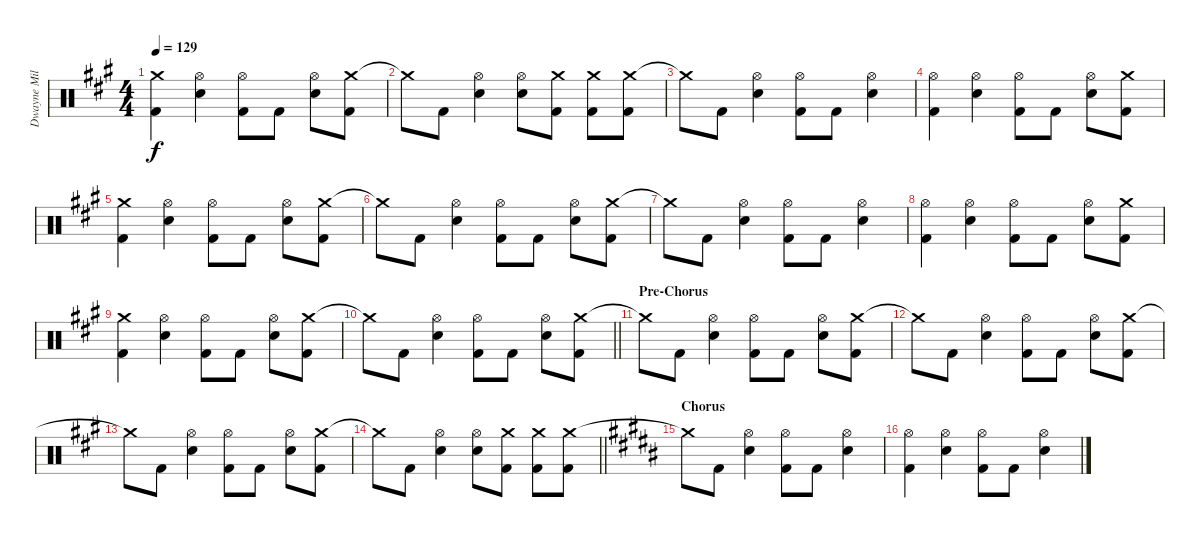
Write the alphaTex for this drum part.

\track ("Dwayne Miller" "Dwayne Mil") {instrument percussion}
\staff {score}
\articulation defaults
\ts (4 4)
\tempo 129
\clef neutral
\ks a
("Crash medium (hit)" "Kick (hit) 2").4{dy f} ("Hi-Hat (open)" "Snare (hit) 2").4 ("Hi-Hat (open)" "Kick (hit) 2").8 "Kick (hit) 2".8 ("Hi-Hat (open)" "Snare (hit) 2").8 ("Crash medium (hit)" "Kick (hit) 2").8 |
"Crash medium (hit)"{t}.8 "Kick (hit) 2".8 ("Hi-Hat (open)" "Snare (hit) 2").4 ("Hi-Hat (open)" "Snare (hit) 2").8 ("Crash medium (hit)" "Kick (hit) 2").8 ("Crash medium (hit)" "Kick (hit) 2").8 ("Crash medium (hit)" "Kick (hit) 2").8 |
"Crash medium (hit)"{t}.8 "Kick (hit) 2".8 ("Hi-Hat (open)" "Snare (hit) 2").4 ("Hi-Hat (open)" "Kick (hit) 2").8 "Kick (hit) 2".8 ("Hi-Hat (open)" "Snare (hit) 2").4 |
("Hi-Hat (open)" "Kick (hit) 2").4 ("Hi-Hat (open)" "Snare (hit) 2").4 ("Hi-Hat (open)" "Kick (hit) 2").8 "Kick (hit) 2".8 ("Hi-Hat (open)" "Snare (hit) 2").8 ("Crash medium (hit)" "Kick (hit) 2").8 |
("Crash medium (hit)" "Kick (hit) 2").4 ("Hi-Hat (open)" "Snare (hit) 2").4 ("Hi-Hat (open)" "Kick (hit) 2").8 "Kick (hit) 2".8 ("Hi-Hat (open)" "Snare (hit) 2").8 ("Crash medium (hit)" "Kick (hit) 2").8 |
"Crash medium (hit)"{t}.8 "Kick (hit) 2".8 ("Hi-Hat (open)" "Snare (hit) 2").4 ("Hi-Hat (open)" "Kick (hit) 2").8 "Kick (hit) 2".8 ("Hi-Hat (open)" "Snare (hit) 2").8 ("Crash medium (hit)" "Kick (hit) 2").8 |
"Crash medium (hit)"{t}.8 "Kick (hit) 2".8 ("Hi-Hat (open)" "Snare (hit) 2").4 ("Hi-Hat (open)" "Kick (hit) 2").8 "Kick (hit) 2".8 ("Hi-Hat (open)" "Snare (hit) 2").4 |
("Hi-Hat (open)" "Kick (hit) 2").4 ("Hi-Hat (open)" "Snare (hit) 2").4 ("Hi-Hat (open)" "Kick (hit) 2").8 "Kick (hit) 2".8 ("Hi-Hat (open)" "Snare (hit) 2").8 ("Crash medium (hit)" "Kick (hit) 2").8 |
("Crash medium (hit)" "Kick (hit) 2").4 ("Hi-Hat (open)" "Snare (hit) 2").4 ("Hi-Hat (open)" "Kick (hit) 2").8 "Kick (hit) 2".8 ("Hi-Hat (open)" "Snare (hit) 2").8 ("Crash medium (hit)" "Kick (hit) 2").8 |
\barLineRight lightlight "Crash medium (hit)"{t}.8 "Kick (hit) 2".8
("Hi-Hat (open)" "Snare (hit) 2").4 ("Hi-Hat (open)" "Kick (hit) 2").8 "Kick (hit) 2".8 ("Hi-Hat (open)" "Snare (hit) 2").8 ("Crash medium (hit)" "Kick (hit) 2").8 |
\section ("" "Pre-Chorus")
"Crash medium (hit)"{t}.8 "Kick (hit) 2".8 ("Hi-Hat (open)" "Snare (hit) 2").4 ("Hi-Hat (open)" "Kick (hit) 2").8 "Kick (hit) 2".8 ("Hi-Hat (open)" "Snare (hit) 2").8 ("Crash medium (hit)" "Kick (hit) 2").8 |
"Crash medium (hit)"{t}.8 "Kick (hit) 2".8 ("Hi-Hat (open)" "Snare (hit) 2").4 ("Hi-Hat (open)" "Kick (hit) 2").8 "Kick (hit) 2".8 ("Hi-Hat (open)" "Snare (hit) 2").8 ("Crash medium (hit)" "Kick (hit) 2").8 |
"Crash medium (hit)"{t}.8 "Kick (hit) 2".8 ("Hi-Hat (open)" "Snare (hit) 2").4 ("Hi-Hat (open)" "Kick (hit) 2").8 "Kick (hit) 2".8 ("Hi-Hat (open)" "Snare (hit) 2").8 ("Crash medium (hit)" "Kick (hit) 2").8 |
\barLineRight lightlight "Crash medium (hit)"{t}.8 "Kick (hit) 2".8
("Hi-Hat (open)" "Snare (hit) 2").4 ("Hi-Hat (open)" "Snare (hit) 2").8 ("Crash medium (hit)" "Kick (hit) 2").8 ("Crash medium (hit)" "Kick (hit) 2").8 ("Crash medium (hit)" "Kick (hit) 2").8 |
\section ("" "Chorus")
\ks b "Crash medium (hit)"{t}.8 "Kick (hit) 2".8
("Hi-Hat (open)" "Snare (hit) 2").4 ("Hi-Hat (open)" "Kick (hit) 2").8 "Kick (hit) 2".8 ("Hi-Hat (open)" "Snare (hit) 2").4 |
("Hi-Hat (open)" "Kick (hit) 2").4 ("Hi-Hat (open)" "Snare (hit) 2").4 ("Hi-Hat (open)" "Kick (hit) 2").8 "Kick (hit) 2".8 ("Hi-Hat (open)" "Snare (hit) 2").4
